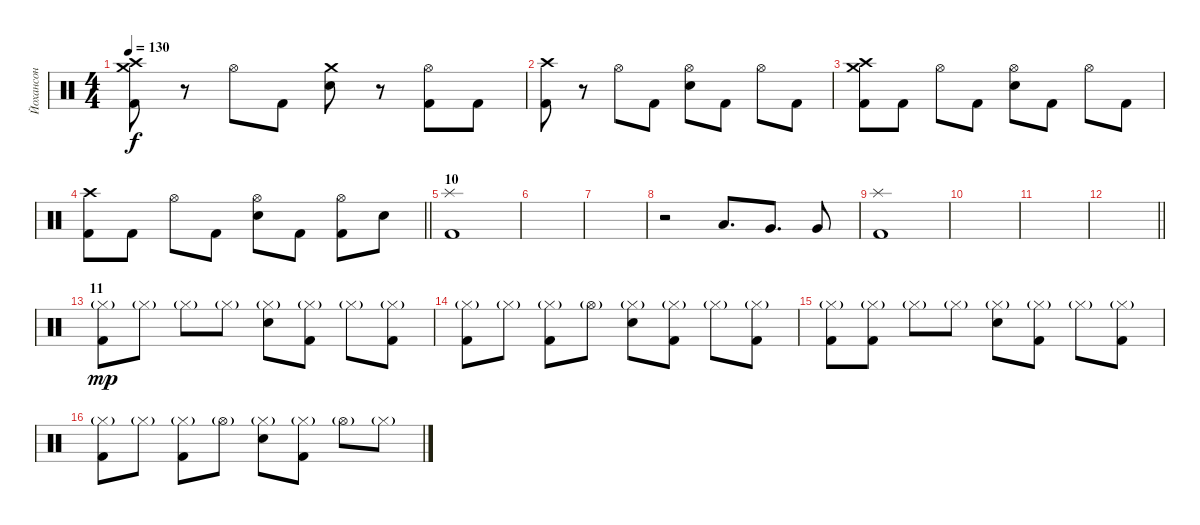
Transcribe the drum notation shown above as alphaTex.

\track ("Йохансон" "Йохансон") {instrument percussion}
\staff {score}
\articulation defaults
\ts (4 4)
\tempo 130
\clef neutral
\ks c
("Crash medium (hit)" "Crash high (hit)" "Kick (hit) 2").8{dy f} r.8 "Hi-Hat (open)".8 "Kick (hit) 2".8 ("Crash medium (hit)" "Snare (hit) 2").8 r.8 ("Hi-Hat (open)" "Kick (hit) 2").8 "Kick (hit) 2".8 |
("Crash high (hit)" "Kick (hit) 2").8 r.8 "Hi-Hat (open)".8 "Kick (hit) 2".8 ("Hi-Hat (open)" "Snare (hit) 2").8 "Kick (hit) 2".8 "Hi-Hat (open)".8 "Kick (hit) 2".8 |
("Crash medium (hit)" "Crash high (hit)" "Kick (hit) 2").8 "Kick (hit) 2".8 "Hi-Hat (open)".8 "Kick (hit) 2".8 ("Hi-Hat (open)" "Snare (hit) 2").8 "Kick (hit) 2".8 "Hi-Hat (open)".8 "Kick (hit) 2".8 |
\barLineRight lightlight
("Crash high (hit)" "Kick (hit) 2").8 "Kick (hit) 2".8 "Hi-Hat (open)".8 "Kick (hit) 2".8 ("Hi-Hat (open)" "Snare (hit) 2").8 "Kick (hit) 2".8 ("Hi-Hat (open)" "Kick (hit) 2").8 "Snare (hit) 2".8 |
\section ("" "10")
("Splash (hit)" "Kick (hit) 2").1 |
|
|
r.2 "Low Floor Tom (hit)".8{d} "Very Low Tom (hit)".8{d} "Very Low Tom (hit)".8 |
("Splash (hit)" "Kick (hit) 2").1 |
|
|
\barLineRight lightlight
|
\section ("" "11")
("Hi-Hat (closed)"{g} "Kick (hit) 2").8{dy mp} "Hi-Hat (closed)"{g}.8 "Hi-Hat (closed)"{g}.8 "Hi-Hat (closed)"{g}.8 ("Hi-Hat (closed)"{g} "Snare (hit) 2").8 ("Hi-Hat (closed)"{g} "Kick (hit) 2").8 "Hi-Hat (closed)"{g}.8 ("Hi-Hat (closed)"{g} "Kick (hit) 2").8 |
("Hi-Hat (closed)"{g} "Kick (hit) 2").8 "Hi-Hat (closed)"{g}.8 ("Hi-Hat (closed)"{g} "Kick (hit) 2").8 "Hi-Hat (open)"{g}.8 ("Hi-Hat (closed)"{g} "Snare (hit) 2").8 ("Hi-Hat (closed)"{g} "Kick (hit) 2").8 "Hi-Hat (closed)"{g}.8 ("Hi-Hat (closed)"{g} "Kick (hit) 2").8 |
("Hi-Hat (closed)"{g} "Kick (hit) 2").8 ("Hi-Hat (closed)"{g} "Kick (hit) 2").8 "Hi-Hat (closed)"{g}.8 "Hi-Hat (closed)"{g}.8 ("Hi-Hat (closed)"{g} "Snare (hit) 2").8 ("Hi-Hat (closed)"{g} "Kick (hit) 2").8 "Hi-Hat (closed)"{g}.8 ("Hi-Hat (closed)"{g} "Kick (hit) 2").8 |
("Hi-Hat (closed)"{g} "Kick (hit) 2").8 "Hi-Hat (closed)"{g}.8 ("Hi-Hat (closed)"{g} "Kick (hit) 2").8 "Hi-Hat (open)"{g}.8 ("Hi-Hat (closed)"{g} "Snare (hit) 2").8 ("Hi-Hat (closed)"{g} "Kick (hit) 2").8 "Hi-Hat (open)"{g}.8 "Hi-Hat (closed)"{g}.8
